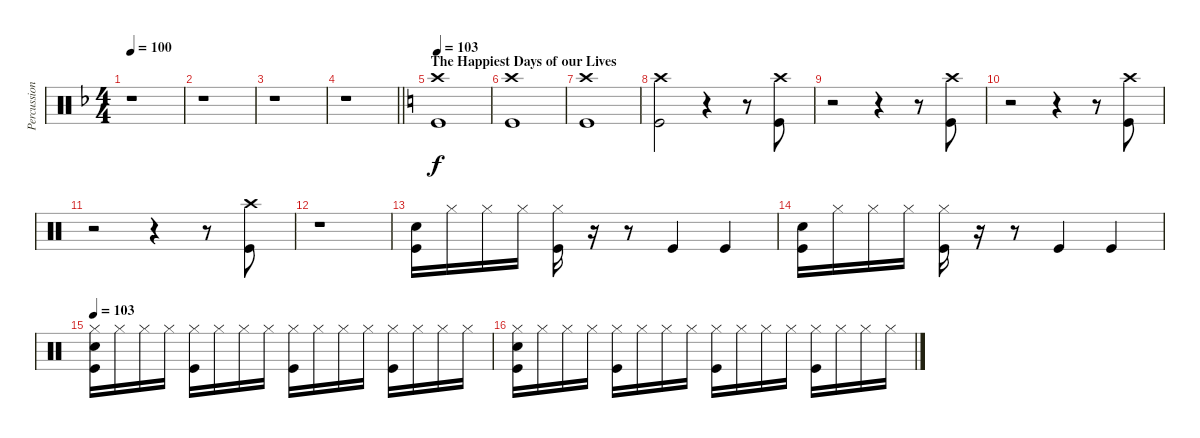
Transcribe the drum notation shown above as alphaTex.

\track ("Percussions" "Percussion") {instrument percussion}
\staff {score}
\articulation defaults
\ts (4 4)
\tempo 100
\clef neutral
\ks dminor
r.1{dy f} |
r.1 |
r.1 |
\barLineRight lightlight
r.1 |
\section ("" "The Happiest Days of our Lives")
\tempo 103
\ks c
("Kick (hit)" "Crash high (hit)").1{volume 10} |
("Kick (hit)" "Crash high (hit)").1 |
("Kick (hit)" "Crash high (hit)").1 |
("Kick (hit)" "Crash high (hit)").2 r.4 r.8 ("Kick (hit)" "Crash high (hit)").8 |
r.2 r.4 r.8 ("Kick (hit)" "Crash high (hit)").8 |
r.2 r.4 r.8 ("Kick (hit)" "Crash high (hit)").8 |
r.2 r.4 r.8 ("Kick (hit)" "Crash high (hit)").8 |
r.1 |
("Snare (hit) 2" "Kick (hit)").16 "Hi-Hat (closed)".16 "Hi-Hat (closed)".16 "Hi-Hat (closed)".16 ("Hi-Hat (closed)" "Kick (hit)").16 r.16 r.8 "Kick (hit)".4 "Kick (hit)".4 |
("Snare (hit) 2" "Kick (hit)").16 "Hi-Hat (closed)".16 "Hi-Hat (closed)".16 "Hi-Hat (closed)".16 ("Hi-Hat (closed)" "Kick (hit)").16 r.16 r.8 "Kick (hit)".4 "Kick (hit)".4 |
\tempo 103
("Hi-Hat (closed)" "Kick (hit)" "Snare (hit) 2").16 "Hi-Hat (closed)".16 "Hi-Hat (closed)".16 "Hi-Hat (closed)".16 ("Hi-Hat (closed)" "Kick (hit)").16 "Hi-Hat (closed)".16 "Hi-Hat (closed)".16 "Hi-Hat (closed)".16 ("Hi-Hat (closed)" "Kick (hit)").16 "Hi-Hat (closed)".16 "Hi-Hat (closed)".16 "Hi-Hat (closed)".16 ("Hi-Hat (closed)" "Kick (hit)").16 "Hi-Hat (closed)".16 "Hi-Hat (closed)".16 "Hi-Hat (closed)".16 |
("Hi-Hat (closed)" "Kick (hit)" "Snare (hit) 2").16 "Hi-Hat (closed)".16 "Hi-Hat (closed)".16 "Hi-Hat (closed)".16 ("Hi-Hat (closed)" "Kick (hit)").16 "Hi-Hat (closed)".16 "Hi-Hat (closed)".16 "Hi-Hat (closed)".16 ("Hi-Hat (closed)" "Kick (hit)").16 "Hi-Hat (closed)".16 "Hi-Hat (closed)".16 "Hi-Hat (closed)".16 ("Hi-Hat (closed)" "Kick (hit)").16 "Hi-Hat (closed)".16 "Hi-Hat (closed)".16 "Hi-Hat (closed)".16
